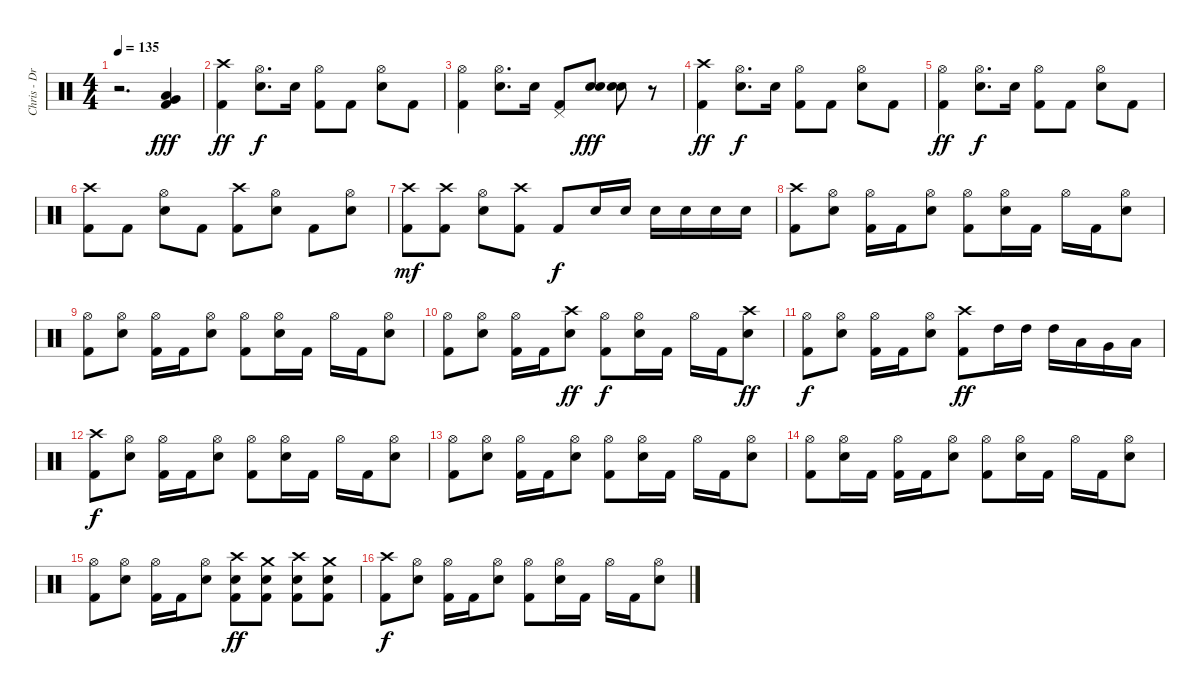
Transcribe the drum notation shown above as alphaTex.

\track ("Chris - Drums" "Chris - Dr") {instrument percussion}
\staff {score}
\articulation defaults
\ts (4 4)
\tempo 135
\clef neutral
\ks c
r.2{d dy ff} ("Very Low Tom (hit)" "Low Floor Tom (hit)" "Kick (hit) 2").4{dy fff} |
("Crash high (hit)" "Kick (hit) 2").4{dy ff} ("Hi-Hat (open)" "Electric Snare (hit)").8{d dy f} "Electric Snare (hit)".16 ("Hi-Hat (open)" "Kick (hit) 2").8 "Kick (hit) 2".8 ("Hi-Hat (open)" "Electric Snare (hit)").8 "Kick (hit) 2".8 |
("Hi-Hat (open)" "Kick (hit) 2").4 ("Hi-Hat (open)" "Electric Snare (hit)").8{d} "Electric Snare (hit)".16 ("Pedal Hi-Hat (hit)" "Kick (hit) 2").8 ("Snare (hit) 2" "Electric Snare (hit)").8{dy fff} ("Snare (hit) 2" "Electric Snare (hit)").8 r.8 |
("Crash high (hit)" "Kick (hit) 2").4{dy ff} ("Hi-Hat (open)" "Electric Snare (hit)").8{d dy f} "Electric Snare (hit)".16 ("Hi-Hat (open)" "Kick (hit) 2").8 "Kick (hit) 2".8 ("Hi-Hat (open)" "Electric Snare (hit)").8 "Kick (hit) 2".8 |
("Hi-Hat (open)" "Kick (hit) 2").4{dy ff} ("Hi-Hat (open)" "Electric Snare (hit)").8{d dy f} "Electric Snare (hit)".16 ("Hi-Hat (open)" "Kick (hit) 2").8 "Kick (hit) 2".8 ("Hi-Hat (open)" "Electric Snare (hit)").8 "Kick (hit) 2".8 |
("Crash high (hit)" "Kick (hit) 2").8 "Kick (hit) 2".8 ("Hi-Hat (open)" "Electric Snare (hit)").8 "Kick (hit) 2".8 ("Crash high (hit)" "Kick (hit) 2").8 ("Hi-Hat (open)" "Electric Snare (hit)").8 "Kick (hit) 2".8 ("Hi-Hat (open)" "Electric Snare (hit)").8 |
("Crash high (hit)" "Kick (hit) 2").8{dy mf} ("Crash high (hit)" "Kick (hit) 2").8 ("Hi-Hat (open)" "Electric Snare (hit)").8 ("Crash high (hit)" "Kick (hit) 2").8 "Kick (hit) 2".8{dy f} "Electric Snare (hit)".16 "Electric Snare (hit)".16 "Electric Snare (hit)".16 "Electric Snare (hit)".16 "Electric Snare (hit)".16 "Electric Snare (hit)".16 |
("Crash high (hit)" "Kick (hit) 2").8 ("Hi-Hat (open)" "Electric Snare (hit)").8 ("Hi-Hat (open)" "Kick (hit) 2").16 "Kick (hit) 2".16 ("Hi-Hat (open)" "Electric Snare (hit)").8 ("Hi-Hat (open)" "Kick (hit) 2").8 ("Hi-Hat (open)" "Electric Snare (hit)").16 "Kick (hit) 2".16 "Hi-Hat (open)".16 "Kick (hit) 2".16 ("Hi-Hat (open)" "Electric Snare (hit)").8 |
("Hi-Hat (open)" "Kick (hit) 2").8 ("Hi-Hat (open)" "Electric Snare (hit)").8 ("Hi-Hat (open)" "Kick (hit) 2").16 "Kick (hit) 2".16 ("Hi-Hat (open)" "Electric Snare (hit)").8 ("Hi-Hat (open)" "Kick (hit) 2").8 ("Hi-Hat (open)" "Electric Snare (hit)").16 "Kick (hit) 2".16 "Hi-Hat (open)".16 "Kick (hit) 2".16 ("Hi-Hat (open)" "Electric Snare (hit)").8 |
("Hi-Hat (open)" "Kick (hit) 2").8 ("Hi-Hat (open)" "Electric Snare (hit)").8 ("Hi-Hat (open)" "Kick (hit) 2").16 "Kick (hit) 2".16 ("Crash high (hit)" "Electric Snare (hit)").8{dy ff} ("Hi-Hat (open)" "Kick (hit) 2").8{dy f} ("Hi-Hat (open)" "Electric Snare (hit)").16 "Kick (hit) 2".16 "Hi-Hat (open)".16 "Kick (hit) 2".16 ("Crash high (hit)" "Electric Snare (hit)").8{dy ff} |
("Hi-Hat (open)" "Kick (hit) 2").8{dy f} ("Hi-Hat (open)" "Electric Snare (hit)").8 ("Hi-Hat (open)" "Kick (hit) 2").16 "Kick (hit) 2".16 ("Hi-Hat (open)" "Electric Snare (hit)").8 ("Crash high (hit)" "Kick (hit) 2").8{dy ff} "High Tom (hit)".16 "High Tom (hit)".16 "High Tom (hit)".16 "Low Tom (hit)".16 "Very Low Tom (hit)".16 "Low Floor Tom (hit)".16 |
("Crash high (hit)" "Kick (hit) 2").8{dy f} ("Hi-Hat (open)" "Electric Snare (hit)").8 ("Hi-Hat (open)" "Kick (hit) 2").16 "Kick (hit) 2".16 ("Hi-Hat (open)" "Electric Snare (hit)").8 ("Hi-Hat (open)" "Kick (hit) 2").8 ("Hi-Hat (open)" "Electric Snare (hit)").16 "Kick (hit) 2".16 "Hi-Hat (open)".16 "Kick (hit) 2".16 ("Hi-Hat (open)" "Electric Snare (hit)").8 |
("Hi-Hat (open)" "Kick (hit) 2").8 ("Hi-Hat (open)" "Electric Snare (hit)").8 ("Hi-Hat (open)" "Kick (hit) 2").16 "Kick (hit) 2".16 ("Hi-Hat (open)" "Electric Snare (hit)").8 ("Hi-Hat (open)" "Kick (hit) 2").8 ("Hi-Hat (open)" "Electric Snare (hit)").16 "Kick (hit) 2".16 "Hi-Hat (open)".16 "Kick (hit) 2".16 ("Hi-Hat (open)" "Electric Snare (hit)").8 |
("Hi-Hat (open)" "Kick (hit) 2").8 ("Hi-Hat (open)" "Electric Snare (hit)").16 "Kick (hit) 2".16 ("Hi-Hat (open)" "Kick (hit) 2").16 "Kick (hit) 2".16 ("Hi-Hat (open)" "Electric Snare (hit)").8 ("Hi-Hat (open)" "Kick (hit) 2").8 ("Hi-Hat (open)" "Electric Snare (hit)").16 "Kick (hit) 2".16 "Hi-Hat (open)".16 "Kick (hit) 2".16 ("Hi-Hat (open)" "Electric Snare (hit)").8 |
("Hi-Hat (open)" "Kick (hit) 2").8 ("Hi-Hat (open)" "Electric Snare (hit)").8 ("Hi-Hat (open)" "Kick (hit) 2").16 "Kick (hit) 2".16 ("Hi-Hat (open)" "Electric Snare (hit)").8 ("Crash high (hit)" "Electric Snare (hit)" "Kick (hit) 2").8{dy ff} ("Crash medium (hit)" "Electric Snare (hit)" "Kick (hit) 2").8 ("Crash high (hit)" "Electric Snare (hit)" "Kick (hit) 2").8 ("Crash medium (hit)" "Electric Snare (hit)" "Kick (hit) 2").8 |
("Crash high (hit)" "Kick (hit) 2").8{dy f} ("Hi-Hat (open)" "Electric Snare (hit)").8 ("Hi-Hat (open)" "Kick (hit) 2").16 "Kick (hit) 2".16 ("Hi-Hat (open)" "Electric Snare (hit)").8 ("Hi-Hat (open)" "Kick (hit) 2").8 ("Hi-Hat (open)" "Electric Snare (hit)").16 "Kick (hit) 2".16 "Hi-Hat (open)".16 "Kick (hit) 2".16 ("Hi-Hat (open)" "Electric Snare (hit)").8
